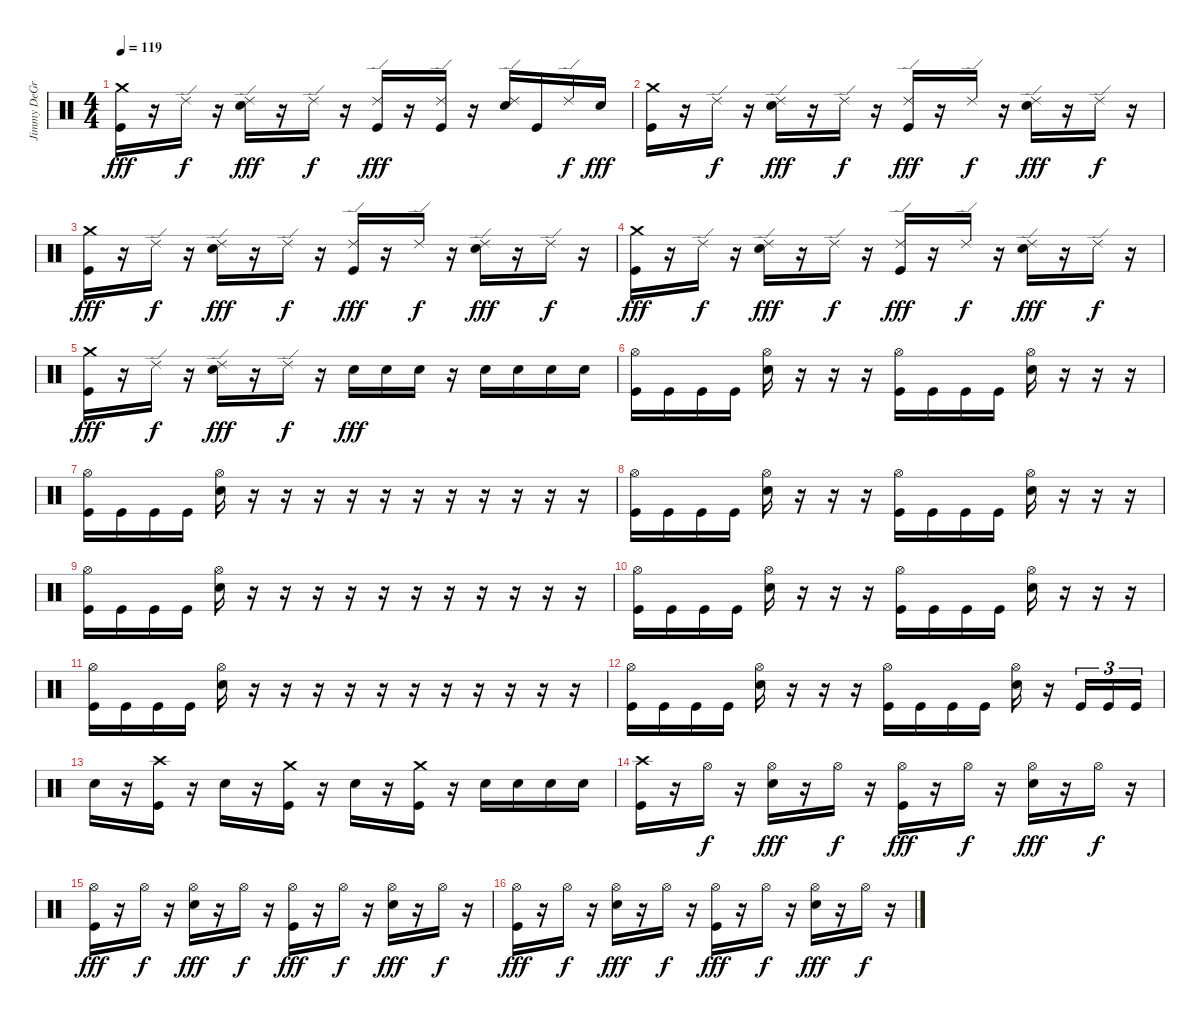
\track ("Jimmy DeGrasso" "Jimmy DeGr") {instrument percussion}
\staff {score}
\articulation defaults
\ts (4 4)
\tempo 119
\clef neutral
\ks c
("Kick (hit)" "Crash medium (hit)").16{dy fff} r.16 "Ride (edge) 2".16{dy f} r.16 ("Electric Snare (hit)" "Ride (edge) 2").16{dy fff} r.16 "Ride (edge) 2".16{dy f} r.16 ("Kick (hit)" "Ride (edge) 2").16{dy fff} r.16 ("Kick (hit)" "Ride (edge) 2").16 r.16 ("Electric Snare (hit)" "Ride (edge) 2").16 "Kick (hit)".16 "Ride (edge) 2".16{dy f} "Electric Snare (hit)".16{dy fff} |
("Kick (hit)" "Crash medium (hit)").16 r.16 "Ride (edge) 2".16{dy f} r.16 ("Electric Snare (hit)" "Ride (edge) 2").16{dy fff} r.16 "Ride (edge) 2".16{dy f} r.16 ("Kick (hit)" "Ride (edge) 2").16{dy fff} r.16 "Ride (edge) 2".16{dy f} r.16 ("Electric Snare (hit)" "Ride (edge) 2").16{dy fff} r.16 "Ride (edge) 2".16{dy f} r.16 |
("Kick (hit)" "Crash medium (hit)").16{dy fff} r.16 "Ride (edge) 2".16{dy f} r.16 ("Electric Snare (hit)" "Ride (edge) 2").16{dy fff} r.16 "Ride (edge) 2".16{dy f} r.16 ("Kick (hit)" "Ride (edge) 2").16{dy fff} r.16 "Ride (edge) 2".16{dy f} r.16 ("Electric Snare (hit)" "Ride (edge) 2").16{dy fff} r.16 "Ride (edge) 2".16{dy f} r.16 |
("Kick (hit)" "Crash medium (hit)").16{dy fff} r.16 "Ride (edge) 2".16{dy f} r.16 ("Electric Snare (hit)" "Ride (edge) 2").16{dy fff} r.16 "Ride (edge) 2".16{dy f} r.16 ("Kick (hit)" "Ride (edge) 2").16{dy fff} r.16 "Ride (edge) 2".16{dy f} r.16 ("Electric Snare (hit)" "Ride (edge) 2").16{dy fff} r.16 "Ride (edge) 2".16{dy f} r.16 |
("Kick (hit)" "Crash medium (hit)").16{dy fff} r.16 "Ride (edge) 2".16{dy f} r.16 ("Electric Snare (hit)" "Ride (edge) 2").16{dy fff} r.16 "Ride (edge) 2".16{dy f} r.16 "Electric Snare (hit)".16{dy fff} "Electric Snare (hit)".16 "Electric Snare (hit)".16 r.16 "Electric Snare (hit)".16 "Electric Snare (hit)".16 "Electric Snare (hit)".16 "Electric Snare (hit)".16 |
("Kick (hit)" "Hi-Hat (open)").16 "Kick (hit)".16 "Kick (hit)".16 "Kick (hit)".16 ("Electric Snare (hit)" "Hi-Hat (open)").16 r.16 r.16 r.16 ("Kick (hit)" "Hi-Hat (open)").16 "Kick (hit)".16 "Kick (hit)".16 "Kick (hit)".16 ("Electric Snare (hit)" "Hi-Hat (open)").16 r.16 r.16 r.16 |
("Kick (hit)" "Hi-Hat (open)").16 "Kick (hit)".16 "Kick (hit)".16 "Kick (hit)".16 ("Electric Snare (hit)" "Hi-Hat (open)").16 r.16 r.16 r.16 r.16 r.16 r.16 r.16 r.16 r.16 r.16 r.16 |
("Kick (hit)" "Hi-Hat (open)").16 "Kick (hit)".16 "Kick (hit)".16 "Kick (hit)".16 ("Electric Snare (hit)" "Hi-Hat (open)").16 r.16 r.16 r.16 ("Kick (hit)" "Hi-Hat (open)").16 "Kick (hit)".16 "Kick (hit)".16 "Kick (hit)".16 ("Electric Snare (hit)" "Hi-Hat (open)").16 r.16 r.16 r.16 |
("Kick (hit)" "Hi-Hat (open)").16 "Kick (hit)".16 "Kick (hit)".16 "Kick (hit)".16 ("Electric Snare (hit)" "Hi-Hat (open)").16 r.16 r.16 r.16 r.16 r.16 r.16 r.16 r.16 r.16 r.16 r.16 |
("Kick (hit)" "Hi-Hat (open)").16 "Kick (hit)".16 "Kick (hit)".16 "Kick (hit)".16 ("Electric Snare (hit)" "Hi-Hat (open)").16 r.16 r.16 r.16 ("Kick (hit)" "Hi-Hat (open)").16 "Kick (hit)".16 "Kick (hit)".16 "Kick (hit)".16 ("Electric Snare (hit)" "Hi-Hat (open)").16 r.16 r.16 r.16 |
("Kick (hit)" "Hi-Hat (open)").16 "Kick (hit)".16 "Kick (hit)".16 "Kick (hit)".16 ("Electric Snare (hit)" "Hi-Hat (open)").16 r.16 r.16 r.16 r.16 r.16 r.16 r.16 r.16 r.16 r.16 r.16 |
("Kick (hit)" "Hi-Hat (open)").16 "Kick (hit)".16 "Kick (hit)".16 "Kick (hit)".16 ("Electric Snare (hit)" "Hi-Hat (open)").16 r.16 r.16 r.16 ("Kick (hit)" "Hi-Hat (open)").16 "Kick (hit)".16 "Kick (hit)".16 "Kick (hit)".16 ("Electric Snare (hit)" "Hi-Hat (open)").16 r.16 "Kick (hit)".16{tu (3 2)} "Kick (hit)".16{tu (3 2)} "Kick (hit)".16{tu (3 2)} |
"Electric Snare (hit)".16 r.16 ("Kick (hit)" "Crash high (hit)").16 r.16 "Electric Snare (hit)".16 r.16 ("Kick (hit)" "Crash medium (hit)").16 r.16 "Electric Snare (hit)".16 r.16 ("Kick (hit)" "Crash medium (hit)").16 r.16 "Electric Snare (hit)".16 "Electric Snare (hit)".16 "Electric Snare (hit)".16 "Electric Snare (hit)".16 |
("Kick (hit)" "Crash high (hit)").16 r.16 "Hi-Hat (open)".16{dy f} r.16 ("Electric Snare (hit)" "Hi-Hat (open)").16{dy fff} r.16 "Hi-Hat (open)".16{dy f} r.16 ("Kick (hit)" "Hi-Hat (open)").16{dy fff} r.16 "Hi-Hat (open)".16{dy f} r.16 ("Electric Snare (hit)" "Hi-Hat (open)").16{dy fff} r.16 "Hi-Hat (open)".16{dy f} r.16 |
("Kick (hit)" "Hi-Hat (open)").16{dy fff} r.16 "Hi-Hat (open)".16{dy f} r.16 ("Electric Snare (hit)" "Hi-Hat (open)").16{dy fff} r.16 "Hi-Hat (open)".16{dy f} r.16 ("Kick (hit)" "Hi-Hat (open)").16{dy fff} r.16 "Hi-Hat (open)".16{dy f} r.16 ("Electric Snare (hit)" "Hi-Hat (open)").16{dy fff} r.16 "Hi-Hat (open)".16{dy f} r.16 |
("Kick (hit)" "Hi-Hat (open)").16{dy fff} r.16 "Hi-Hat (open)".16{dy f} r.16 ("Electric Snare (hit)" "Hi-Hat (open)").16{dy fff} r.16 "Hi-Hat (open)".16{dy f} r.16 ("Kick (hit)" "Hi-Hat (open)").16{dy fff} r.16 "Hi-Hat (open)".16{dy f} r.16 ("Electric Snare (hit)" "Hi-Hat (open)").16{dy fff} r.16 "Hi-Hat (open)".16{dy f} r.16
